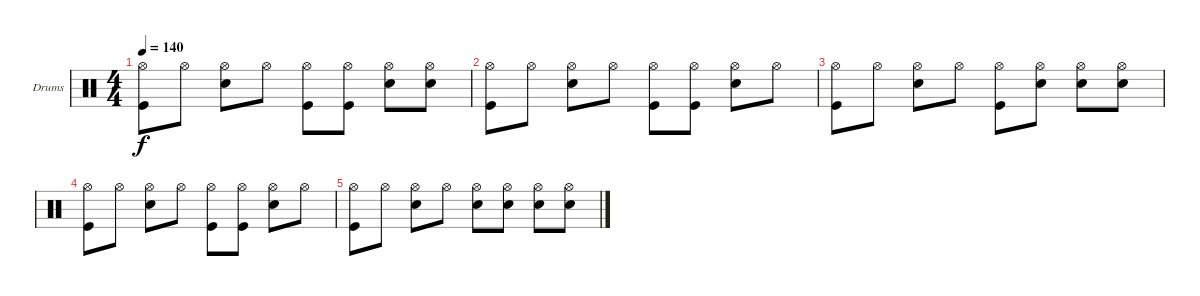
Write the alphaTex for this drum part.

\defaultSystemsLayout 4
\bracketExtendMode groupsimilarinstruments
\firstSystemTrackNameOrientation horizontal
\otherSystemsTrackNameOrientation horizontal
\track ("Drumkit" "Drums") {instrument percussion}
\staff {score}
\articulation defaults
\ts (4 4)
\tempo 140
\clef neutral
\ks c
("Hi-Hat (open)" "Kick (hit)").8{dy f} "Hi-Hat (open)".8 ("Hi-Hat (open)" "Snare (hit) 2").8 "Hi-Hat (open)".8 ("Hi-Hat (open)" "Kick (hit)").8 ("Hi-Hat (open)" "Kick (hit)").8 ("Snare (hit) 2" "Hi-Hat (open)").8 ("Hi-Hat (open)" "Snare (hit) 2").8 |
("Hi-Hat (open)" "Kick (hit)").8 "Hi-Hat (open)".8 ("Hi-Hat (open)" "Snare (hit) 2").8 "Hi-Hat (open)".8 ("Kick (hit)" "Hi-Hat (open)").8 ("Kick (hit)" "Hi-Hat (open)").8 ("Snare (hit) 2" "Hi-Hat (open)").8 "Hi-Hat (open)".8 |
("Hi-Hat (open)" "Kick (hit)").8 "Hi-Hat (open)".8 ("Hi-Hat (open)" "Snare (hit) 2").8 "Hi-Hat (open)".8 ("Hi-Hat (open)" "Kick (hit)").8 ("Hi-Hat (open)" "Snare (hit) 2").8 ("Snare (hit) 2" "Hi-Hat (open)").8 ("Hi-Hat (open)" "Snare (hit) 2").8 |
("Hi-Hat (open)" "Kick (hit)").8 "Hi-Hat (open)".8 ("Hi-Hat (open)" "Snare (hit) 2").8 "Hi-Hat (open)".8 ("Kick (hit)" "Hi-Hat (open)").8 ("Kick (hit)" "Hi-Hat (open)").8 ("Snare (hit) 2" "Hi-Hat (open)").8 "Hi-Hat (open)".8 |
("Hi-Hat (open)" "Kick (hit)").8 "Hi-Hat (open)".8 ("Hi-Hat (open)" "Snare (hit) 2").8 "Hi-Hat (open)".8 ("Hi-Hat (open)" "Snare (hit) 2").8 ("Hi-Hat (open)" "Snare (hit) 2").8 ("Snare (hit) 2" "Hi-Hat (open)").8 ("Hi-Hat (open)" "Snare (hit) 2").8
